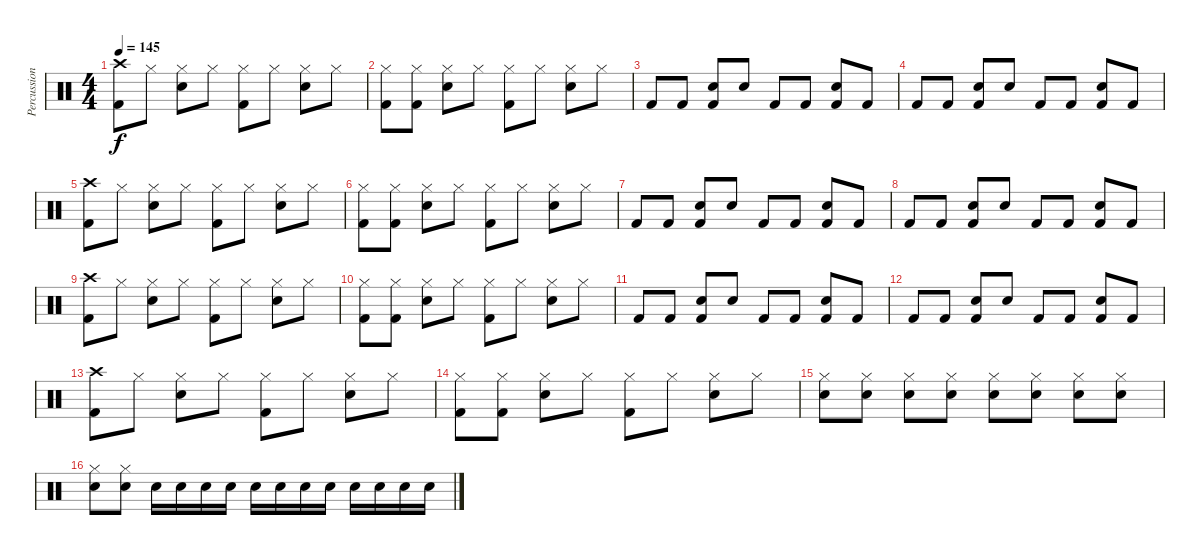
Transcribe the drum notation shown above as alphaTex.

\track ("Percussion" "Percussion") {instrument percussion}
\staff {score}
\articulation defaults
\ts (4 4)
\tempo 145
\clef neutral
\ks c
("Kick (hit) 2" "Crash high (hit)").8{dy f} "Hi-Hat (closed)".8 ("Snare (hit) 2" "Hi-Hat (closed)").8 "Hi-Hat (closed)".8 ("Kick (hit) 2" "Hi-Hat (closed)").8 "Hi-Hat (closed)".8 ("Snare (hit) 2" "Hi-Hat (closed)").8 "Hi-Hat (closed)".8 |
("Kick (hit) 2" "Hi-Hat (closed)").8 ("Kick (hit) 2" "Hi-Hat (closed)").8 ("Snare (hit) 2" "Hi-Hat (closed)").8 "Hi-Hat (closed)".8 ("Kick (hit) 2" "Hi-Hat (closed)").8 "Hi-Hat (closed)".8 ("Snare (hit) 2" "Hi-Hat (closed)").8 "Hi-Hat (closed)".8 |
"Kick (hit) 2".8 "Kick (hit) 2".8 ("Kick (hit) 2" "Snare (hit) 2").8 "Snare (hit) 2".8 "Kick (hit) 2".8 "Kick (hit) 2".8 ("Kick (hit) 2" "Snare (hit) 2").8 "Kick (hit) 2".8 |
"Kick (hit) 2".8 "Kick (hit) 2".8 ("Kick (hit) 2" "Snare (hit) 2").8 "Snare (hit) 2".8 "Kick (hit) 2".8 "Kick (hit) 2".8 ("Kick (hit) 2" "Snare (hit) 2").8 "Kick (hit) 2".8 |
("Kick (hit) 2" "Crash high (hit)").8 "Hi-Hat (closed)".8 ("Snare (hit) 2" "Hi-Hat (closed)").8 "Hi-Hat (closed)".8 ("Kick (hit) 2" "Hi-Hat (closed)").8 "Hi-Hat (closed)".8 ("Snare (hit) 2" "Hi-Hat (closed)").8 "Hi-Hat (closed)".8 |
("Kick (hit) 2" "Hi-Hat (closed)").8 ("Kick (hit) 2" "Hi-Hat (closed)").8 ("Snare (hit) 2" "Hi-Hat (closed)").8 "Hi-Hat (closed)".8 ("Kick (hit) 2" "Hi-Hat (closed)").8 "Hi-Hat (closed)".8 ("Snare (hit) 2" "Hi-Hat (closed)").8 "Hi-Hat (closed)".8 |
"Kick (hit) 2".8 "Kick (hit) 2".8 ("Kick (hit) 2" "Snare (hit) 2").8 "Snare (hit) 2".8 "Kick (hit) 2".8 "Kick (hit) 2".8 ("Kick (hit) 2" "Snare (hit) 2").8 "Kick (hit) 2".8 |
"Kick (hit) 2".8 "Kick (hit) 2".8 ("Kick (hit) 2" "Snare (hit) 2").8 "Snare (hit) 2".8 "Kick (hit) 2".8 "Kick (hit) 2".8 ("Kick (hit) 2" "Snare (hit) 2").8 "Kick (hit) 2".8 |
("Kick (hit) 2" "Crash high (hit)").8 "Hi-Hat (closed)".8 ("Snare (hit) 2" "Hi-Hat (closed)").8 "Hi-Hat (closed)".8 ("Kick (hit) 2" "Hi-Hat (closed)").8 "Hi-Hat (closed)".8 ("Snare (hit) 2" "Hi-Hat (closed)").8 "Hi-Hat (closed)".8 |
("Kick (hit) 2" "Hi-Hat (closed)").8 ("Kick (hit) 2" "Hi-Hat (closed)").8 ("Snare (hit) 2" "Hi-Hat (closed)").8 "Hi-Hat (closed)".8 ("Kick (hit) 2" "Hi-Hat (closed)").8 "Hi-Hat (closed)".8 ("Snare (hit) 2" "Hi-Hat (closed)").8 "Hi-Hat (closed)".8 |
"Kick (hit) 2".8 "Kick (hit) 2".8 ("Kick (hit) 2" "Snare (hit) 2").8 "Snare (hit) 2".8 "Kick (hit) 2".8 "Kick (hit) 2".8 ("Kick (hit) 2" "Snare (hit) 2").8 "Kick (hit) 2".8 |
"Kick (hit) 2".8 "Kick (hit) 2".8 ("Kick (hit) 2" "Snare (hit) 2").8 "Snare (hit) 2".8 "Kick (hit) 2".8 "Kick (hit) 2".8 ("Kick (hit) 2" "Snare (hit) 2").8 "Kick (hit) 2".8 |
("Kick (hit) 2" "Crash high (hit)").8 "Hi-Hat (closed)".8 ("Snare (hit) 2" "Hi-Hat (closed)").8 "Hi-Hat (closed)".8 ("Kick (hit) 2" "Hi-Hat (closed)").8 "Hi-Hat (closed)".8 ("Snare (hit) 2" "Hi-Hat (closed)").8 "Hi-Hat (closed)".8 |
("Kick (hit) 2" "Hi-Hat (closed)").8 ("Kick (hit) 2" "Hi-Hat (closed)").8 ("Snare (hit) 2" "Hi-Hat (closed)").8 "Hi-Hat (closed)".8 ("Kick (hit) 2" "Hi-Hat (closed)").8 "Hi-Hat (closed)".8 ("Snare (hit) 2" "Hi-Hat (closed)").8 "Hi-Hat (closed)".8 |
("Snare (hit) 2" "Hi-Hat (closed)").8 ("Snare (hit) 2" "Hi-Hat (closed)").8 ("Snare (hit) 2" "Hi-Hat (closed)").8 ("Snare (hit) 2" "Hi-Hat (closed)").8 ("Snare (hit) 2" "Hi-Hat (closed)").8 ("Snare (hit) 2" "Hi-Hat (closed)").8 ("Snare (hit) 2" "Hi-Hat (closed)").8 ("Snare (hit) 2" "Hi-Hat (closed)").8 |
("Snare (hit) 2" "Hi-Hat (closed)").8 ("Snare (hit) 2" "Hi-Hat (closed)").8 "Snare (hit) 2".16 "Snare (hit) 2".16 "Snare (hit) 2".16 "Snare (hit) 2".16 "Snare (hit) 2".16 "Snare (hit) 2".16 "Snare (hit) 2".16 "Snare (hit) 2".16 "Snare (hit) 2".16 "Snare (hit) 2".16 "Snare (hit) 2".16 "Snare (hit) 2".16
